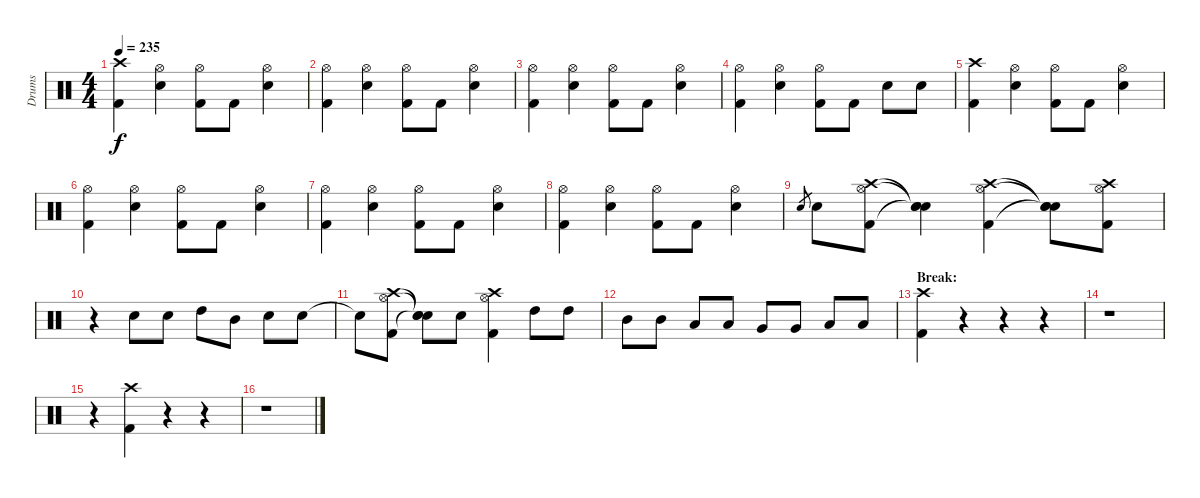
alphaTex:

\track ("Drums" "Drums") {instrument percussion}
\staff {score}
\articulation defaults
\ts (4 4)
\tempo 235
\clef neutral
\ks c
("Crash high (hit)" "Kick (hit) 2").4{dy f} ("Hi-Hat (open)" "Snare (hit) 2").4 ("Hi-Hat (open)" "Kick (hit) 2").8 "Kick (hit) 2".8 ("Hi-Hat (open)" "Snare (hit) 2").4 |
("Hi-Hat (open)" "Kick (hit) 2").4 ("Hi-Hat (open)" "Snare (hit) 2").4 ("Hi-Hat (open)" "Kick (hit) 2").8 "Kick (hit) 2".8 ("Hi-Hat (open)" "Snare (hit) 2").4 |
("Hi-Hat (open)" "Kick (hit) 2").4 ("Hi-Hat (open)" "Snare (hit) 2").4 ("Hi-Hat (open)" "Kick (hit) 2").8 "Kick (hit) 2".8 ("Hi-Hat (open)" "Snare (hit) 2").4 |
("Hi-Hat (open)" "Kick (hit) 2").4 ("Hi-Hat (open)" "Snare (hit) 2").4 ("Hi-Hat (open)" "Kick (hit) 2").8 "Kick (hit) 2".8 "Snare (hit) 2".8 "Snare (hit) 2".8 |
("Crash high (hit)" "Kick (hit) 2").4 ("Hi-Hat (open)" "Snare (hit) 2").4 ("Hi-Hat (open)" "Kick (hit) 2").8 "Kick (hit) 2".8 ("Hi-Hat (open)" "Snare (hit) 2").4 |
("Hi-Hat (open)" "Kick (hit) 2").4 ("Hi-Hat (open)" "Snare (hit) 2").4 ("Hi-Hat (open)" "Kick (hit) 2").8 "Kick (hit) 2".8 ("Hi-Hat (open)" "Snare (hit) 2").4 |
("Hi-Hat (open)" "Kick (hit) 2").4 ("Hi-Hat (open)" "Snare (hit) 2").4 ("Hi-Hat (open)" "Kick (hit) 2").8 "Kick (hit) 2".8 ("Hi-Hat (open)" "Snare (hit) 2").4 |
("Hi-Hat (open)" "Kick (hit) 2").4 ("Hi-Hat (open)" "Snare (hit) 2").4 ("Hi-Hat (open)" "Kick (hit) 2").8 "Kick (hit) 2".8 ("Hi-Hat (open)" "Snare (hit) 2").4 |
"Snare (hit) 2".8{gr} "Snare (hit) 2".8 ("Hi-Hat (open)" "Crash high (hit)" "Kick (hit) 2").8 ("Snare (hit)"{t} "Snare (hit)"{t} "Snare (hit)"{t}).4 ("Hi-Hat (open)" "Crash high (hit)" "Kick (hit) 2").4 ("Snare (hit)"{t} "Snare (hit)"{t} "Snare (hit)"{t}).8 ("Hi-Hat (open)" "Crash high (hit)" "Kick (hit) 2").8 |
r.4 "Snare (hit) 2".8 "Snare (hit) 2".8 "High Tom (hit)".8 "Mid Tom (hit)".8 "Snare (hit) 2".8 "Snare (hit) 2".8 |
"Snare (hit) 2"{t}.8 ("Hi-Hat (open)" "Crash high (hit)" "Kick (hit) 2").8 ("Snare (hit)"{t} "Snare (hit)"{t} "Snare (hit)"{t}).8 "Snare (hit) 2".8 ("Hi-Hat (open)" "Crash high (hit)" "Kick (hit) 2").4 "High Tom (hit)".8 "High Tom (hit)".8 |
"Mid Tom (hit)".8 "Mid Tom (hit)".8 "Low Tom (hit)".8 "Low Tom (hit)".8 "Very Low Tom (hit)".8 "Very Low Tom (hit)".8 "Low Floor Tom (hit)".8 "Low Floor Tom (hit)".8 |
\section ("" "Break:")
("Crash high (hit)" "Kick (hit) 2").4 r.4 r.4 r.4 |
r.1 |
r.4 ("Crash high (hit)" "Kick (hit) 2").4 r.4 r.4 |
r.1
